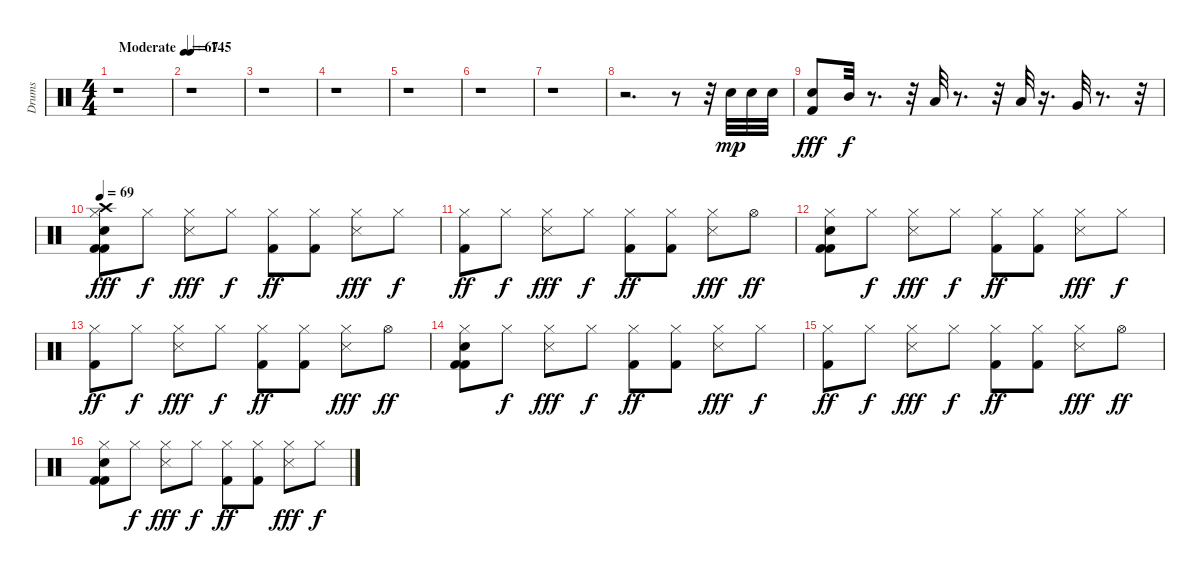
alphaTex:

\track ("Drums" "Drums") {instrument percussion}
\staff {score}
\articulation defaults
\ts (4 4)
\tempo (67 "Moderate")
\clef neutral
\ks c
r.1{dy mp} |
\tempo 145
r.1 |
r.1 |
r.1 |
r.1 |
r.1 |
r.1 |
r.2{d} r.8 r.32 "Electric Snare (hit)".32 "Electric Snare (hit)".32 "Electric Snare (hit)".32 |
("Kick (hit) 2" "Electric Snare (hit)").8{dy fff} "Mid Tom (hit)".32{dy f} r.8{d} r.32 "Low Tom (hit)".32 r.8{d} r.32 "Low Tom (hit)".32 r.16{d} "Very Low Tom (hit)".32 r.8{d} r.32 |
\tempo 69
("Snare (hit)" "Kick (hit) 2" "Kick (hit) 2" "Hi-Hat (closed)" "Crash high (hit)").8{dy fff} "Hi-Hat (closed)".8{dy f} ("Snare (side stick) 3" "Hi-Hat (closed)").8{dy fff} "Hi-Hat (closed)".8{dy f} ("Kick (hit) 2" "Hi-Hat (closed)").8{dy ff} ("Kick (hit) 2" "Hi-Hat (closed)").8 ("Snare (side stick) 3" "Hi-Hat (closed)").8{dy fff} "Hi-Hat (closed)".8{dy f} |
("Kick (hit) 2" "Hi-Hat (closed)").8{dy ff} "Hi-Hat (closed)".8{dy f} ("Snare (side stick) 3" "Hi-Hat (closed)").8{dy fff} "Hi-Hat (closed)".8{dy f} ("Kick (hit) 2" "Hi-Hat (closed)").8{dy ff} ("Kick (hit) 2" "Hi-Hat (closed)").8 ("Snare (side stick) 3" "Hi-Hat (closed)").8{dy fff} "Hi-Hat (open)".8{dy ff} |
("Snare (hit)" "Kick (hit) 2" "Kick (hit) 2" "Hi-Hat (closed)").8 "Hi-Hat (closed)".8{dy f} ("Snare (side stick) 3" "Hi-Hat (closed)").8{dy fff} "Hi-Hat (closed)".8{dy f} ("Kick (hit) 2" "Hi-Hat (closed)").8{dy ff} ("Kick (hit) 2" "Hi-Hat (closed)").8 ("Snare (side stick) 3" "Hi-Hat (closed)").8{dy fff} "Hi-Hat (closed)".8{dy f} |
("Kick (hit) 2" "Hi-Hat (closed)").8{dy ff} "Hi-Hat (closed)".8{dy f} ("Snare (side stick) 3" "Hi-Hat (closed)").8{dy fff} "Hi-Hat (closed)".8{dy f} ("Kick (hit) 2" "Hi-Hat (closed)").8{dy ff} ("Kick (hit) 2" "Hi-Hat (closed)").8 ("Snare (side stick) 3" "Hi-Hat (closed)").8{dy fff} "Hi-Hat (open)".8{dy ff} |
("Snare (hit)" "Kick (hit) 2" "Kick (hit) 2" "Hi-Hat (closed)").8 "Hi-Hat (closed)".8{dy f} ("Snare (side stick) 3" "Hi-Hat (closed)").8{dy fff} "Hi-Hat (closed)".8{dy f} ("Kick (hit) 2" "Hi-Hat (closed)").8{dy ff} ("Kick (hit) 2" "Hi-Hat (closed)").8 ("Snare (side stick) 3" "Hi-Hat (closed)").8{dy fff} "Hi-Hat (closed)".8{dy f} |
("Kick (hit) 2" "Hi-Hat (closed)").8{dy ff} "Hi-Hat (closed)".8{dy f} ("Snare (side stick) 3" "Hi-Hat (closed)").8{dy fff} "Hi-Hat (closed)".8{dy f} ("Kick (hit) 2" "Hi-Hat (closed)").8{dy ff} ("Kick (hit) 2" "Hi-Hat (closed)").8 ("Snare (side stick) 3" "Hi-Hat (closed)").8{dy fff} "Hi-Hat (open)".8{dy ff} |
("Snare (hit)" "Kick (hit) 2" "Kick (hit) 2" "Hi-Hat (closed)").8 "Hi-Hat (closed)".8{dy f} ("Snare (side stick) 3" "Hi-Hat (closed)").8{dy fff} "Hi-Hat (closed)".8{dy f} ("Kick (hit) 2" "Hi-Hat (closed)").8{dy ff} ("Kick (hit) 2" "Hi-Hat (closed)").8 ("Snare (side stick) 3" "Hi-Hat (closed)").8{dy fff} "Hi-Hat (closed)".8{dy f}
